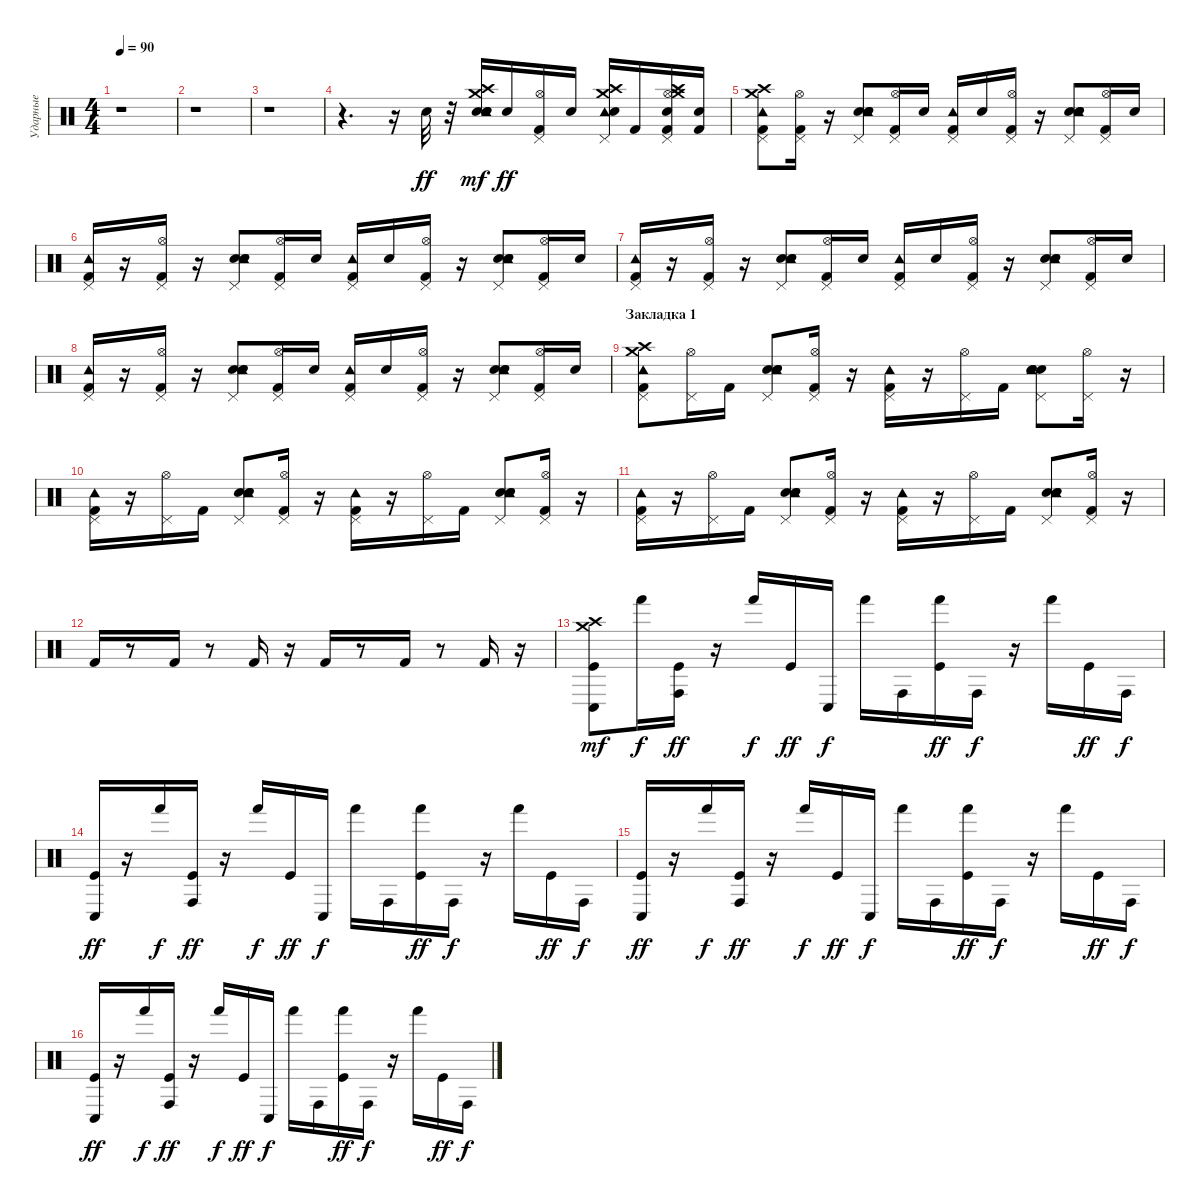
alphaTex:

\track ("Ударные" "Ударные") {instrument percussion}
\staff {score}
\articulation defaults
\ts (4 4)
\tempo 90
\clef neutral
\ks c
r.1{dy ff} |
r.1 |
r.1 |
r.4{d} r.16 "Electric Snare (hit)".32 r.32 ("Electric Snare (hit)" "Electric Snare (hit)" "Crash high (hit)" "Crash medium (hit)" "Electric Snare (hit)" "Tambourine (hit)").16{dy mf} "Electric Snare (hit)".16{dy ff} ("Kick (hit) 2" "Hi-Hat (open)" "Pedal Hi-Hat (hit)").16 "Electric Snare (hit)".16 ("Crash high (hit)" "Crash medium (hit)" "Tambourine (hit)" "Pedal Hi-Hat (hit)" "Electric Snare (hit)").16 "Kick (hit) 2".16 ("Kick (hit) 2" "Hi-Hat (open)" "Pedal Hi-Hat (hit)" "Crash high (hit)" "Crash medium (hit)" "Electric Snare (hit)").16 ("Kick (hit) 2" "Electric Snare (hit)").16 |
("Kick (hit) 2" "Tambourine (hit)" "Crash high (hit)" "Crash medium (hit)" "Pedal Hi-Hat (hit)").8 ("Kick (hit) 2" "Hi-Hat (open)" "Pedal Hi-Hat (hit)").16 r.16 ("Electric Snare (hit)" "Snare (hit) 2" "Hand Clap (hit)" "Tambourine (hit)" "Pedal Hi-Hat (hit)").8 ("Kick (hit) 2" "Hi-Hat (open)" "Pedal Hi-Hat (hit)").16 "Snare (hit) 2".16 ("Kick (hit) 2" "Tambourine (hit)" "Pedal Hi-Hat (hit)").16 "Snare (hit) 2".16 ("Kick (hit) 2" "Hi-Hat (open)" "Pedal Hi-Hat (hit)").16 r.16 ("Electric Snare (hit)" "Snare (hit) 2" "Hand Clap (hit)" "Tambourine (hit)" "Pedal Hi-Hat (hit)").8 ("Kick (hit) 2" "Hi-Hat (open)" "Pedal Hi-Hat (hit)").16 "Snare (hit) 2".16 |
("Kick (hit) 2" "Tambourine (hit)" "Pedal Hi-Hat (hit)").16 r.16 ("Kick (hit) 2" "Hi-Hat (open)" "Pedal Hi-Hat (hit)").16 r.16 ("Electric Snare (hit)" "Hand Clap (hit)" "Snare (hit) 2" "Tambourine (hit)" "Pedal Hi-Hat (hit)").8 ("Kick (hit) 2" "Hi-Hat (open)" "Pedal Hi-Hat (hit)").16 "Snare (hit) 2".16 ("Kick (hit) 2" "Tambourine (hit)" "Pedal Hi-Hat (hit)").16 "Snare (hit) 2".16 ("Kick (hit) 2" "Hi-Hat (open)" "Pedal Hi-Hat (hit)").16 r.16 ("Electric Snare (hit)" "Hand Clap (hit)" "Snare (hit) 2" "Tambourine (hit)" "Pedal Hi-Hat (hit)").8 ("Kick (hit) 2" "Hi-Hat (open)" "Pedal Hi-Hat (hit)").16 "Snare (hit) 2".16 |
("Kick (hit) 2" "Tambourine (hit)" "Pedal Hi-Hat (hit)").16 r.16 ("Kick (hit) 2" "Hi-Hat (open)" "Pedal Hi-Hat (hit)").16 r.16 ("Electric Snare (hit)" "Hand Clap (hit)" "Snare (hit) 2" "Tambourine (hit)" "Pedal Hi-Hat (hit)").8 ("Kick (hit) 2" "Hi-Hat (open)" "Pedal Hi-Hat (hit)").16 "Snare (hit) 2".16 ("Kick (hit) 2" "Tambourine (hit)" "Pedal Hi-Hat (hit)").16 "Snare (hit) 2".16 ("Kick (hit) 2" "Hi-Hat (open)" "Pedal Hi-Hat (hit)").16 r.16 ("Electric Snare (hit)" "Hand Clap (hit)" "Snare (hit) 2" "Tambourine (hit)" "Pedal Hi-Hat (hit)").8 ("Kick (hit) 2" "Hi-Hat (open)" "Pedal Hi-Hat (hit)").16 "Snare (hit) 2".16 |
("Kick (hit) 2" "Tambourine (hit)" "Pedal Hi-Hat (hit)").16 r.16 ("Kick (hit) 2" "Hi-Hat (open)" "Pedal Hi-Hat (hit)").16 r.16 ("Electric Snare (hit)" "Hand Clap (hit)" "Snare (hit) 2" "Tambourine (hit)" "Pedal Hi-Hat (hit)").8 ("Kick (hit) 2" "Hi-Hat (open)" "Pedal Hi-Hat (hit)").16 "Snare (hit) 2".16 ("Kick (hit) 2" "Tambourine (hit)" "Pedal Hi-Hat (hit)").16 "Snare (hit) 2".16 ("Kick (hit) 2" "Hi-Hat (open)" "Pedal Hi-Hat (hit)").16 r.16 ("Electric Snare (hit)" "Hand Clap (hit)" "Snare (hit) 2" "Tambourine (hit)" "Pedal Hi-Hat (hit)").8 ("Kick (hit) 2" "Hi-Hat (open)" "Pedal Hi-Hat (hit)").16 "Snare (hit) 2".16 |
\section ("" "Закладка 1")
("Kick (hit) 2" "Tambourine (hit)" "Crash high (hit)" "Crash medium (hit)" "Pedal Hi-Hat (hit)").8 ("Hi-Hat (open)" "Pedal Hi-Hat (hit)").16 "Kick (hit) 2".16 ("Electric Snare (hit)" "Snare (hit) 2" "Hand Clap (hit)" "Tambourine (hit)" "Pedal Hi-Hat (hit)").8 ("Kick (hit) 2" "Hi-Hat (open)" "Pedal Hi-Hat (hit)").16 r.16 ("Kick (hit) 2" "Tambourine (hit)" "Pedal Hi-Hat (hit)").16 r.16 ("Hi-Hat (open)" "Pedal Hi-Hat (hit)").16 "Kick (hit) 2".16 ("Electric Snare (hit)" "Snare (hit) 2" "Hand Clap (hit)" "Tambourine (hit)" "Pedal Hi-Hat (hit)").8 ("Hi-Hat (open)" "Pedal Hi-Hat (hit)").16 r.16 |
("Kick (hit) 2" "Tambourine (hit)" "Pedal Hi-Hat (hit)").16 r.16 ("Hi-Hat (open)" "Pedal Hi-Hat (hit)").16 "Kick (hit) 2".16 ("Electric Snare (hit)" "Hand Clap (hit)" "Snare (hit) 2" "Tambourine (hit)" "Pedal Hi-Hat (hit)").8 ("Kick (hit) 2" "Hi-Hat (open)" "Pedal Hi-Hat (hit)").16 r.16 ("Kick (hit) 2" "Tambourine (hit)" "Pedal Hi-Hat (hit)").16 r.16 ("Hi-Hat (open)" "Pedal Hi-Hat (hit)").16 "Kick (hit) 2".16 ("Electric Snare (hit)" "Hand Clap (hit)" "Snare (hit) 2" "Tambourine (hit)" "Pedal Hi-Hat (hit)").8 ("Kick (hit) 2" "Hi-Hat (open)" "Pedal Hi-Hat (hit)").16 r.16 |
("Kick (hit) 2" "Tambourine (hit)" "Pedal Hi-Hat (hit)").16 r.16 ("Hi-Hat (open)" "Pedal Hi-Hat (hit)").16 "Kick (hit) 2".16 ("Electric Snare (hit)" "Hand Clap (hit)" "Snare (hit) 2" "Tambourine (hit)" "Pedal Hi-Hat (hit)").8 ("Kick (hit) 2" "Hi-Hat (open)" "Pedal Hi-Hat (hit)").16 r.16 ("Kick (hit) 2" "Tambourine (hit)" "Pedal Hi-Hat (hit)").16 r.16 ("Hi-Hat (open)" "Pedal Hi-Hat (hit)").16 "Kick (hit) 2".16 ("Electric Snare (hit)" "Hand Clap (hit)" "Snare (hit) 2" "Tambourine (hit)" "Pedal Hi-Hat (hit)").8 ("Kick (hit) 2" "Hi-Hat (open)" "Pedal Hi-Hat (hit)").16 r.16 |
"Kick (hit) 2".16 r.8 "Kick (hit) 2".16 r.8 "Kick (hit) 2".16 r.16 "Kick (hit) 2".16 r.8 "Kick (hit) 2".16 r.8 "Kick (hit) 2".16 r.16 |
("Conga low (hit)" "Kick (hit)" "Crash high (hit)" "Crash medium (hit)").8{dy mf} "Hand (hit)".16{dy f} ("Conga high (hit)" "Kick (hit)").16{dy ff} r.16 "Hand (hit)".16{dy f} "Kick (hit)".16{dy ff} "Conga low (hit)".16{dy f} "Hand (hit)".16 "Conga high (hit)".16 ("Kick (hit)" "Hand (hit)").16{dy ff} "Conga high (hit)".16{dy f} r.16 "Hand (hit)".16 "Kick (hit)".16{dy ff} "Conga high (hit)".16{dy f} |
("Conga low (hit)" "Kick (hit)").16{dy ff} r.16 "Hand (hit)".16{dy f} ("Conga high (hit)" "Kick (hit)").16{dy ff} r.16 "Hand (hit)".16{dy f} "Kick (hit)".16{dy ff} "Conga low (hit)".16{dy f} "Hand (hit)".16 "Conga high (hit)".16 ("Kick (hit)" "Hand (hit)").16{dy ff} "Conga high (hit)".16{dy f} r.16 "Hand (hit)".16 "Kick (hit)".16{dy ff} "Conga high (hit)".16{dy f} |
("Conga low (hit)" "Kick (hit)").16{dy ff} r.16 "Hand (hit)".16{dy f} ("Conga high (hit)" "Kick (hit)").16{dy ff} r.16 "Hand (hit)".16{dy f} "Kick (hit)".16{dy ff} "Conga low (hit)".16{dy f} "Hand (hit)".16 "Conga high (hit)".16 ("Kick (hit)" "Hand (hit)").16{dy ff} "Conga high (hit)".16{dy f} r.16 "Hand (hit)".16 "Kick (hit)".16{dy ff} "Conga high (hit)".16{dy f} |
("Conga low (hit)" "Kick (hit)").16{dy ff} r.16 "Hand (hit)".16{dy f} ("Conga high (hit)" "Kick (hit)").16{dy ff} r.16 "Hand (hit)".16{dy f} "Kick (hit)".16{dy ff} "Conga low (hit)".16{dy f} "Hand (hit)".16 "Conga high (hit)".16 ("Kick (hit)" "Hand (hit)").16{dy ff} "Conga high (hit)".16{dy f} r.16 "Hand (hit)".16 "Kick (hit)".16{dy ff} "Conga high (hit)".16{dy f}
